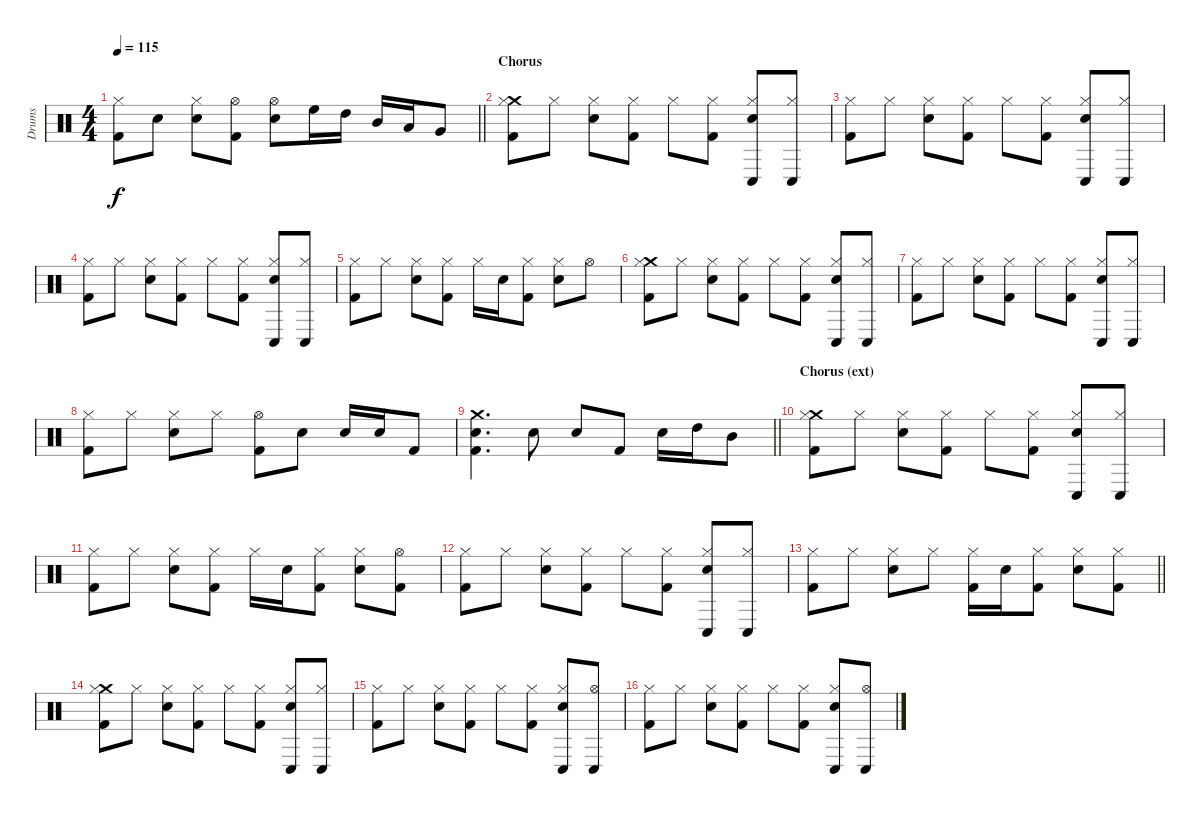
\track ("Drums" "Drums") {instrument percussion}
\staff {score}
\articulation defaults
\ts (4 4)
\tempo 115
\clef neutral
\barLineRight lightlight
\ks c
("Kick (hit) 2" "Hi-Hat (closed)").8{dy f} "Electric Snare (hit)".8 ("Electric Snare (hit)" "Hi-Hat (closed)").8 ("Kick (hit) 2" "Hi-Hat (open)").8 ("Electric Snare (hit)" "Hi-Hat (open)").8 "High Floor Tom (hit)".16 "High Tom (hit)".16 "Mid Tom (hit)".16 "Low Tom (hit)".16 "Very Low Tom (hit)".8 |
\section ("" "Chorus")
("Crash medium (hit)" "Kick (hit) 2" "Hi-Hat (closed)").8 "Hi-Hat (closed)".8 ("Electric Snare (hit)" "Hi-Hat (closed)").8 ("Kick (hit) 2" "Hi-Hat (closed)").8 "Hi-Hat (closed)".8 ("Kick (hit) 2" "Hi-Hat (closed)").8 ("Conga low (hit)" "Electric Snare (hit)" "Hi-Hat (closed)").8 ("Conga low (hit)" "Hi-Hat (closed)").8 |
("Kick (hit) 2" "Hi-Hat (closed)").8 "Hi-Hat (closed)".8 ("Electric Snare (hit)" "Hi-Hat (closed)").8 ("Kick (hit) 2" "Hi-Hat (closed)").8 "Hi-Hat (closed)".8 ("Kick (hit) 2" "Hi-Hat (closed)").8 ("Conga low (hit)" "Electric Snare (hit)" "Hi-Hat (closed)").8 ("Conga low (hit)" "Hi-Hat (closed)").8 |
("Kick (hit) 2" "Hi-Hat (closed)").8 "Hi-Hat (closed)".8 ("Electric Snare (hit)" "Hi-Hat (closed)").8 ("Kick (hit) 2" "Hi-Hat (closed)").8 "Hi-Hat (closed)".8 ("Kick (hit) 2" "Hi-Hat (closed)").8 ("Conga low (hit)" "Electric Snare (hit)" "Hi-Hat (closed)").8 ("Conga low (hit)" "Hi-Hat (closed)").8 |
("Kick (hit) 2" "Hi-Hat (closed)").8 "Hi-Hat (closed)".8 ("Electric Snare (hit)" "Hi-Hat (closed)").8 ("Kick (hit) 2" "Hi-Hat (closed)").8 "Hi-Hat (closed)".16 "Electric Snare (hit)".16 ("Kick (hit) 2" "Hi-Hat (closed)").8 ("Electric Snare (hit)" "Hi-Hat (closed)").8 "Hi-Hat (open)".8 |
("Crash medium (hit)" "Kick (hit) 2" "Hi-Hat (closed)").8 "Hi-Hat (closed)".8 ("Electric Snare (hit)" "Hi-Hat (closed)").8 ("Kick (hit) 2" "Hi-Hat (closed)").8 "Hi-Hat (closed)".8 ("Kick (hit) 2" "Hi-Hat (closed)").8 ("Conga low (hit)" "Electric Snare (hit)" "Hi-Hat (closed)").8 ("Conga low (hit)" "Hi-Hat (closed)").8 |
("Kick (hit) 2" "Hi-Hat (closed)").8 "Hi-Hat (closed)".8 ("Electric Snare (hit)" "Hi-Hat (closed)").8 ("Kick (hit) 2" "Hi-Hat (closed)").8 "Hi-Hat (closed)".8 ("Kick (hit) 2" "Hi-Hat (closed)").8 ("Conga low (hit)" "Electric Snare (hit)" "Hi-Hat (closed)").8 ("Conga low (hit)" "Hi-Hat (closed)").8 |
("Kick (hit) 2" "Hi-Hat (closed)").8 "Hi-Hat (closed)".8 ("Electric Snare (hit)" "Hi-Hat (closed)").8 "Hi-Hat (closed)".8 ("Kick (hit) 2" "Hi-Hat (open)").8 "Electric Snare (hit)".8 "Electric Snare (hit)".16 "Electric Snare (hit)".16 "Kick (hit) 2".8 |
\barLineRight lightlight
("Crash medium (hit)" "Electric Snare (hit)" "Kick (hit) 2").4{d} "Electric Snare (hit)".8 "Electric Snare (hit)".8 "Kick (hit) 2".8 "Electric Snare (hit)".16 "High Tom (hit)".16 "Mid Tom (hit)".8 |
\section ("" "Chorus (ext)")
("Crash medium (hit)" "Kick (hit) 2" "Hi-Hat (closed)").8 "Hi-Hat (closed)".8 ("Electric Snare (hit)" "Hi-Hat (closed)").8 ("Kick (hit) 2" "Hi-Hat (closed)").8 "Hi-Hat (closed)".8 ("Kick (hit) 2" "Hi-Hat (closed)").8 ("Conga low (hit)" "Electric Snare (hit)" "Hi-Hat (closed)").8 ("Conga low (hit)" "Hi-Hat (closed)").8 |
("Kick (hit) 2" "Hi-Hat (closed)").8 "Hi-Hat (closed)".8 ("Electric Snare (hit)" "Hi-Hat (closed)").8 ("Kick (hit) 2" "Hi-Hat (closed)").8 "Hi-Hat (closed)".16 "Electric Snare (hit)".16 ("Kick (hit) 2" "Hi-Hat (closed)").8 ("Electric Snare (hit)" "Hi-Hat (closed)").8 ("Kick (hit) 2" "Hi-Hat (open)").8 |
("Kick (hit) 2" "Hi-Hat (closed)").8 "Hi-Hat (closed)".8 ("Electric Snare (hit)" "Hi-Hat (closed)").8 ("Kick (hit) 2" "Hi-Hat (closed)").8 "Hi-Hat (closed)".8 ("Kick (hit) 2" "Hi-Hat (closed)").8 ("Conga low (hit)" "Electric Snare (hit)" "Hi-Hat (closed)").8 ("Conga low (hit)" "Hi-Hat (closed)").8 |
\barLineRight lightlight
("Kick (hit) 2" "Hi-Hat (closed)").8 "Hi-Hat (closed)".8 ("Electric Snare (hit)" "Hi-Hat (closed)").8 "Hi-Hat (closed)".8 ("Kick (hit) 2" "Hi-Hat (closed)").16 "Electric Snare (hit)".16 ("Kick (hit) 2" "Hi-Hat (closed)").8 ("Electric Snare (hit)" "Hi-Hat (closed)").8 ("Kick (hit) 2" "Hi-Hat (closed)").8 |
("Crash medium (hit)" "Kick (hit) 2" "Hi-Hat (closed)").8 "Hi-Hat (closed)".8 ("Electric Snare (hit)" "Hi-Hat (closed)").8 ("Kick (hit) 2" "Hi-Hat (closed)").8 "Hi-Hat (closed)".8 ("Kick (hit) 2" "Hi-Hat (closed)").8 ("Conga low (hit)" "Electric Snare (hit)" "Hi-Hat (closed)").8 ("Conga low (hit)" "Hi-Hat (closed)").8 |
("Kick (hit) 2" "Hi-Hat (closed)").8 "Hi-Hat (closed)".8 ("Electric Snare (hit)" "Hi-Hat (closed)").8 ("Kick (hit) 2" "Hi-Hat (closed)").8 "Hi-Hat (closed)".8 ("Kick (hit) 2" "Hi-Hat (closed)").8 ("Conga low (hit)" "Electric Snare (hit)" "Hi-Hat (closed)").8 ("Conga low (hit)" "Hi-Hat (open)").8 |
("Kick (hit) 2" "Hi-Hat (closed)").8 "Hi-Hat (closed)".8 ("Electric Snare (hit)" "Hi-Hat (closed)").8 ("Kick (hit) 2" "Hi-Hat (closed)").8 "Hi-Hat (closed)".8 ("Kick (hit) 2" "Hi-Hat (closed)").8 ("Conga low (hit)" "Electric Snare (hit)" "Hi-Hat (closed)").8 ("Conga low (hit)" "Hi-Hat (open)").8
